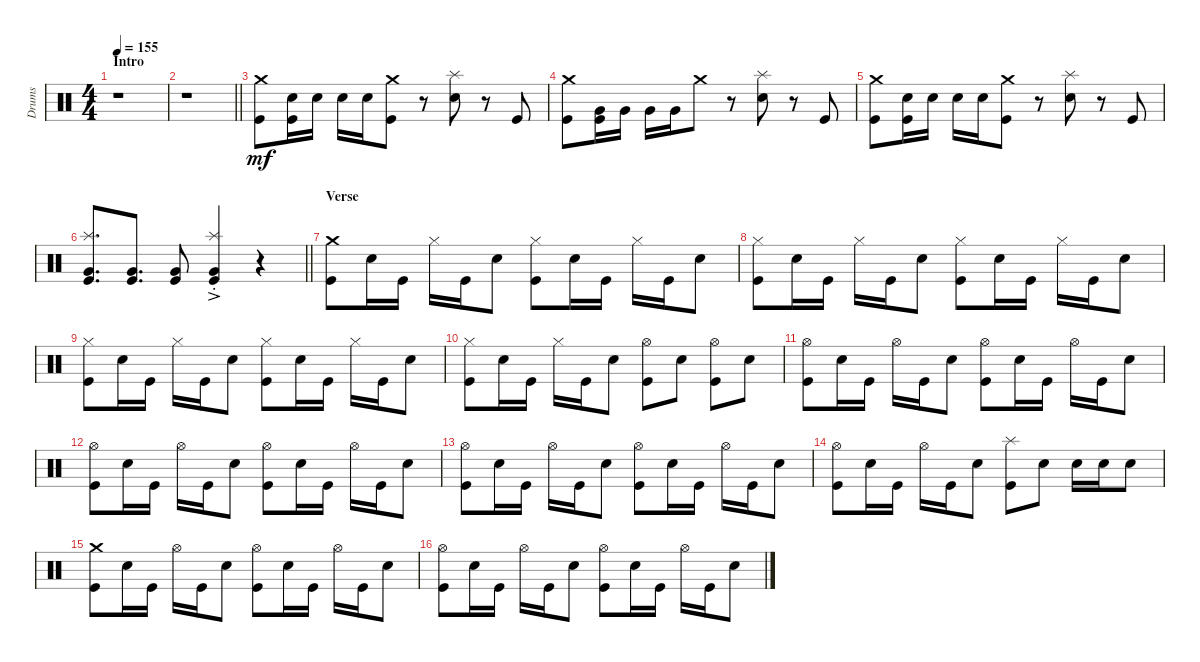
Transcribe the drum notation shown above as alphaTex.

\track ("Drums" "Drums") {instrument percussion}
\staff {score}
\articulation defaults
\ts (4 4)
\section ("" "Intro")
\tempo 155
\clef neutral
\ks c
r.1{dy mf} |
\barLineRight lightlight
r.1 |
("Kick (hit)" "Crash medium (hit)").8 ("Kick (hit)" "Snare (hit) 2").16 "Snare (hit) 2".16 "Snare (hit) 2".16 "Snare (hit) 2".16 ("Kick (hit)" "Crash medium (hit)").8 r.8 ("Snare (hit) 2" "Splash (hit)").8 r.8 "Kick (hit)".8 |
("Kick (hit)" "Crash medium (hit)").8 ("Kick (hit)" "Very Low Tom (hit)").16 "Very Low Tom (hit)".16 "Very Low Tom (hit)".16 "Very Low Tom (hit)".16 "Crash medium (hit)".8 r.8 ("Snare (hit) 2" "Splash (hit)").8 r.8 "Kick (hit)".8 |
("Kick (hit)" "Crash medium (hit)").8 ("Kick (hit)" "Snare (hit) 2").16 "Snare (hit) 2".16 "Snare (hit) 2".16 "Snare (hit) 2".16 ("Kick (hit)" "Crash medium (hit)").8 r.8 ("Snare (hit) 2" "Splash (hit)").8 r.8 "Kick (hit)".8 |
\barLineRight lightlight
("Very Low Tom (hit)" "Kick (hit)" "Splash (hit)").8{d} ("Very Low Tom (hit)" "Kick (hit)").8{d} ("Very Low Tom (hit)" "Kick (hit)").8 ("Very Low Tom (hit)"{ac st} "Kick (hit)"{ac st} "Splash (hit)"{ac st}).4 r.4 |
\section ("" "Verse")
("Kick (hit)" "Crash medium (hit)").8 "Snare (hit) 2".16 "Kick (hit)".16 "Hi-Hat (closed)".16 "Kick (hit)".16 "Snare (hit) 2".8 ("Kick (hit)" "Hi-Hat (closed)").8 "Snare (hit) 2".16 "Kick (hit)".16 "Hi-Hat (closed)".16 "Kick (hit)".16 "Snare (hit) 2".8 |
("Kick (hit)" "Hi-Hat (closed)").8 "Snare (hit) 2".16 "Kick (hit)".16 "Hi-Hat (closed)".16 "Kick (hit)".16 "Snare (hit) 2".8 ("Kick (hit)" "Hi-Hat (closed)").8 "Snare (hit) 2".16 "Kick (hit)".16 "Hi-Hat (closed)".16 "Kick (hit)".16 "Snare (hit) 2".8 |
("Kick (hit)" "Hi-Hat (closed)").8 "Snare (hit) 2".16 "Kick (hit)".16 "Hi-Hat (closed)".16 "Kick (hit)".16 "Snare (hit) 2".8 ("Kick (hit)" "Hi-Hat (closed)").8 "Snare (hit) 2".16 "Kick (hit)".16 "Hi-Hat (closed)".16 "Kick (hit)".16 "Snare (hit) 2".8 |
("Kick (hit)" "Hi-Hat (closed)").8 "Snare (hit) 2".16 "Kick (hit)".16 "Hi-Hat (closed)".16 "Kick (hit)".16 "Snare (hit) 2".8 ("Kick (hit)" "Hi-Hat (open)").8 "Snare (hit) 2".8 ("Kick (hit)" "Hi-Hat (open)").8 "Snare (hit) 2".8 |
("Kick (hit)" "Hi-Hat (open)").8 "Snare (hit) 2".16 "Kick (hit)".16 "Hi-Hat (open)".16 "Kick (hit)".16 "Snare (hit) 2".8 ("Kick (hit)" "Hi-Hat (open)").8 "Snare (hit) 2".16 "Kick (hit)".16 "Hi-Hat (open)".16 "Kick (hit)".16 "Snare (hit) 2".8 |
("Kick (hit)" "Hi-Hat (open)").8 "Snare (hit) 2".16 "Kick (hit)".16 "Hi-Hat (open)".16 "Kick (hit)".16 "Snare (hit) 2".8 ("Kick (hit)" "Hi-Hat (open)").8 "Snare (hit) 2".16 "Kick (hit)".16 "Hi-Hat (open)".16 "Kick (hit)".16 "Snare (hit) 2".8 |
("Kick (hit)" "Hi-Hat (open)").8 "Snare (hit) 2".16 "Kick (hit)".16 "Hi-Hat (open)".16 "Kick (hit)".16 "Snare (hit) 2".8 ("Kick (hit)" "Hi-Hat (open)").8 "Snare (hit) 2".16 "Kick (hit)".16 "Hi-Hat (open)".16 "Kick (hit)".16 "Snare (hit) 2".8 |
("Kick (hit)" "Hi-Hat (open)").8 "Snare (hit) 2".16 "Kick (hit)".16 "Hi-Hat (open)".16 "Kick (hit)".16 "Snare (hit) 2".8 ("Kick (hit)" "Splash (hit)").8 "Snare (hit) 2".8 "Snare (hit) 2".16 "Snare (hit) 2".16 "Snare (hit) 2".8 |
("Kick (hit)" "Crash medium (hit)").8 "Snare (hit) 2".16 "Kick (hit)".16 "Hi-Hat (open)".16 "Kick (hit)".16 "Snare (hit) 2".8 ("Kick (hit)" "Hi-Hat (open)").8 "Snare (hit) 2".16 "Kick (hit)".16 "Hi-Hat (open)".16 "Kick (hit)".16 "Snare (hit) 2".8 |
("Kick (hit)" "Hi-Hat (open)").8 "Snare (hit) 2".16 "Kick (hit)".16 "Hi-Hat (open)".16 "Kick (hit)".16 "Snare (hit) 2".8 ("Kick (hit)" "Hi-Hat (open)").8 "Snare (hit) 2".16 "Kick (hit)".16 "Hi-Hat (open)".16 "Kick (hit)".16 "Snare (hit) 2".8
